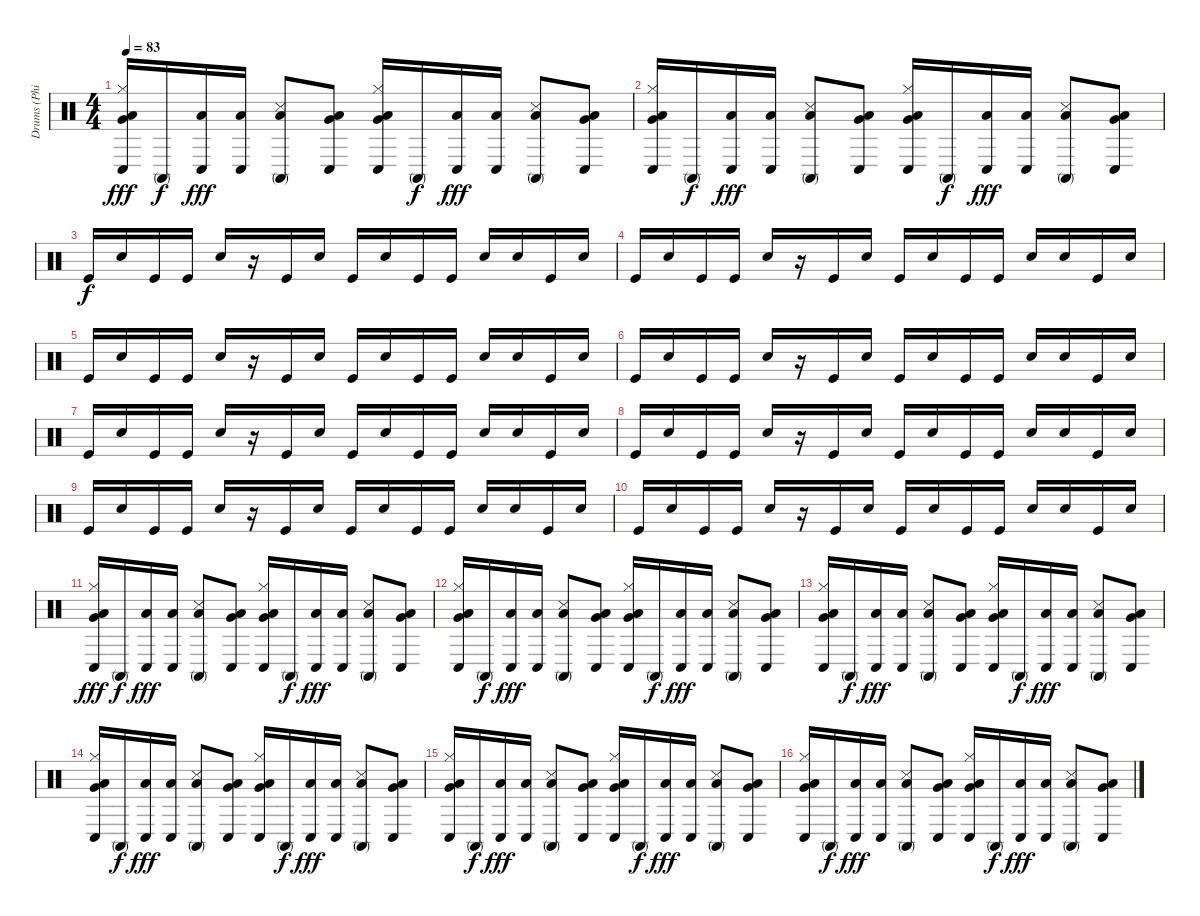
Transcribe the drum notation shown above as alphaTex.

\track ("Drums (Phil)" "Drums (Phi") {instrument percussion}
\staff {score}
\articulation defaults
\ts (4 4)
\tempo 83
\clef neutral
\ks c
("Hi-Hat (closed)" "Conga low (hit)" "Low Floor Tom (hit)" "Very Low Tom (hit)").16{dy fff} "Conga high (mute)".16{dy f} ("Conga low (hit)" "Low Tom (hit)").16{dy fff} ("Conga low (hit)" "Low Tom (hit)").16 ("Conga high (mute)" "Snare (side stick) 3" "Low Tom (hit)").8 ("Conga low (hit)" "Low Floor Tom (hit)" "Very Low Tom (hit)").8 ("Hi-Hat (closed)" "Conga low (hit)" "Low Floor Tom (hit)" "Very Low Tom (hit)").16 "Conga high (mute)".16{dy f} ("Conga low (hit)" "Low Tom (hit)").16{dy fff} ("Conga low (hit)" "Low Tom (hit)").16 ("Conga high (mute)" "Snare (side stick) 3" "Low Tom (hit)").8 ("Conga low (hit)" "Low Floor Tom (hit)" "Very Low Tom (hit)").8 |
("Hi-Hat (closed)" "Conga low (hit)" "Low Floor Tom (hit)" "Very Low Tom (hit)").16 "Conga high (mute)".16{dy f} ("Conga low (hit)" "Low Tom (hit)").16{dy fff} ("Conga low (hit)" "Low Tom (hit)").16 ("Conga high (mute)" "Snare (side stick) 3" "Low Tom (hit)").8 ("Conga low (hit)" "Low Floor Tom (hit)" "Very Low Tom (hit)").8 ("Hi-Hat (closed)" "Conga low (hit)" "Low Floor Tom (hit)" "Very Low Tom (hit)").16 "Conga high (mute)".16{dy f} ("Conga low (hit)" "Low Tom (hit)").16{dy fff} ("Conga low (hit)" "Low Tom (hit)").16 ("Conga high (mute)" "Snare (side stick) 3" "Low Tom (hit)").8 ("Conga low (hit)" "Low Floor Tom (hit)" "Very Low Tom (hit)").8 |
"Kick (hit)".16{dy f} "Snare (hit) 2".16 "Kick (hit)".16 "Kick (hit)".16 "Snare (hit) 2".16 r.16 "Kick (hit)".16 "Snare (hit) 2".16 "Kick (hit)".16 "Snare (hit) 2".16 "Kick (hit)".16 "Kick (hit)".16 "Snare (hit) 2".16 "Snare (hit) 2".16 "Kick (hit)".16 "Snare (hit) 2".16 |
"Kick (hit)".16 "Snare (hit) 2".16 "Kick (hit)".16 "Kick (hit)".16 "Snare (hit) 2".16 r.16 "Kick (hit)".16 "Snare (hit) 2".16 "Kick (hit)".16 "Snare (hit) 2".16 "Kick (hit)".16 "Kick (hit)".16 "Snare (hit) 2".16 "Snare (hit) 2".16 "Kick (hit)".16 "Snare (hit) 2".16 |
"Kick (hit)".16 "Snare (hit) 2".16 "Kick (hit)".16 "Kick (hit)".16 "Snare (hit) 2".16 r.16 "Kick (hit)".16 "Snare (hit) 2".16 "Kick (hit)".16 "Snare (hit) 2".16 "Kick (hit)".16 "Kick (hit)".16 "Snare (hit) 2".16 "Snare (hit) 2".16 "Kick (hit)".16 "Snare (hit) 2".16 |
"Kick (hit)".16 "Snare (hit) 2".16 "Kick (hit)".16 "Kick (hit)".16 "Snare (hit) 2".16 r.16 "Kick (hit)".16 "Snare (hit) 2".16 "Kick (hit)".16 "Snare (hit) 2".16 "Kick (hit)".16 "Kick (hit)".16 "Snare (hit) 2".16 "Snare (hit) 2".16 "Kick (hit)".16 "Snare (hit) 2".16 |
"Kick (hit)".16 "Snare (hit) 2".16 "Kick (hit)".16 "Kick (hit)".16 "Snare (hit) 2".16 r.16 "Kick (hit)".16 "Snare (hit) 2".16 "Kick (hit)".16 "Snare (hit) 2".16 "Kick (hit)".16 "Kick (hit)".16 "Snare (hit) 2".16 "Snare (hit) 2".16 "Kick (hit)".16 "Snare (hit) 2".16 |
"Kick (hit)".16 "Snare (hit) 2".16 "Kick (hit)".16 "Kick (hit)".16 "Snare (hit) 2".16 r.16 "Kick (hit)".16 "Snare (hit) 2".16 "Kick (hit)".16 "Snare (hit) 2".16 "Kick (hit)".16 "Kick (hit)".16 "Snare (hit) 2".16 "Snare (hit) 2".16 "Kick (hit)".16 "Snare (hit) 2".16 |
"Kick (hit)".16 "Snare (hit) 2".16 "Kick (hit)".16 "Kick (hit)".16 "Snare (hit) 2".16 r.16 "Kick (hit)".16 "Snare (hit) 2".16 "Kick (hit)".16 "Snare (hit) 2".16 "Kick (hit)".16 "Kick (hit)".16 "Snare (hit) 2".16 "Snare (hit) 2".16 "Kick (hit)".16 "Snare (hit) 2".16 |
"Kick (hit)".16 "Snare (hit) 2".16 "Kick (hit)".16 "Kick (hit)".16 "Snare (hit) 2".16 r.16 "Kick (hit)".16 "Snare (hit) 2".16 "Kick (hit)".16 "Snare (hit) 2".16 "Kick (hit)".16 "Kick (hit)".16 "Snare (hit) 2".16 "Snare (hit) 2".16 "Kick (hit)".16 "Snare (hit) 2".16 |
("Hi-Hat (closed)" "Conga low (hit)" "Low Floor Tom (hit)" "Very Low Tom (hit)").16{dy fff} "Conga high (mute)".16{dy f} ("Conga low (hit)" "Low Tom (hit)").16{dy fff} ("Conga low (hit)" "Low Tom (hit)").16 ("Conga high (mute)" "Snare (side stick) 3" "Low Tom (hit)").8 ("Conga low (hit)" "Low Floor Tom (hit)" "Very Low Tom (hit)").8 ("Hi-Hat (closed)" "Conga low (hit)" "Low Floor Tom (hit)" "Very Low Tom (hit)").16 "Conga high (mute)".16{dy f} ("Conga low (hit)" "Low Tom (hit)").16{dy fff} ("Conga low (hit)" "Low Tom (hit)").16 ("Conga high (mute)" "Snare (side stick) 3" "Low Tom (hit)").8 ("Conga low (hit)" "Low Floor Tom (hit)" "Very Low Tom (hit)").8 |
("Hi-Hat (closed)" "Conga low (hit)" "Low Floor Tom (hit)" "Very Low Tom (hit)").16 "Conga high (mute)".16{dy f} ("Conga low (hit)" "Low Tom (hit)").16{dy fff} ("Conga low (hit)" "Low Tom (hit)").16 ("Conga high (mute)" "Snare (side stick) 3" "Low Tom (hit)").8 ("Conga low (hit)" "Low Floor Tom (hit)" "Very Low Tom (hit)").8 ("Hi-Hat (closed)" "Conga low (hit)" "Low Floor Tom (hit)" "Very Low Tom (hit)").16 "Conga high (mute)".16{dy f} ("Conga low (hit)" "Low Tom (hit)").16{dy fff} ("Conga low (hit)" "Low Tom (hit)").16 ("Conga high (mute)" "Snare (side stick) 3" "Low Tom (hit)").8 ("Conga low (hit)" "Low Floor Tom (hit)" "Very Low Tom (hit)").8 |
("Hi-Hat (closed)" "Conga low (hit)" "Low Floor Tom (hit)" "Very Low Tom (hit)").16 "Conga high (mute)".16{dy f} ("Conga low (hit)" "Low Tom (hit)").16{dy fff} ("Conga low (hit)" "Low Tom (hit)").16 ("Conga high (mute)" "Snare (side stick) 3" "Low Tom (hit)").8 ("Conga low (hit)" "Low Floor Tom (hit)" "Very Low Tom (hit)").8 ("Hi-Hat (closed)" "Conga low (hit)" "Low Floor Tom (hit)" "Very Low Tom (hit)").16 "Conga high (mute)".16{dy f} ("Conga low (hit)" "Low Tom (hit)").16{dy fff} ("Conga low (hit)" "Low Tom (hit)").16 ("Conga high (mute)" "Snare (side stick) 3" "Low Tom (hit)").8 ("Conga low (hit)" "Low Floor Tom (hit)" "Very Low Tom (hit)").8 |
("Hi-Hat (closed)" "Conga low (hit)" "Low Floor Tom (hit)" "Very Low Tom (hit)").16 "Conga high (mute)".16{dy f} ("Conga low (hit)" "Low Tom (hit)").16{dy fff} ("Conga low (hit)" "Low Tom (hit)").16 ("Conga high (mute)" "Snare (side stick) 3" "Low Tom (hit)").8 ("Conga low (hit)" "Low Floor Tom (hit)" "Very Low Tom (hit)").8 ("Hi-Hat (closed)" "Conga low (hit)" "Low Floor Tom (hit)" "Very Low Tom (hit)").16 "Conga high (mute)".16{dy f} ("Conga low (hit)" "Low Tom (hit)").16{dy fff} ("Conga low (hit)" "Low Tom (hit)").16 ("Conga high (mute)" "Snare (side stick) 3" "Low Tom (hit)").8 ("Conga low (hit)" "Low Floor Tom (hit)" "Very Low Tom (hit)").8 |
("Hi-Hat (closed)" "Conga low (hit)" "Low Floor Tom (hit)" "Very Low Tom (hit)").16 "Conga high (mute)".16{dy f} ("Conga low (hit)" "Low Tom (hit)").16{dy fff} ("Conga low (hit)" "Low Tom (hit)").16 ("Conga high (mute)" "Snare (side stick) 3" "Low Tom (hit)").8 ("Conga low (hit)" "Low Floor Tom (hit)" "Very Low Tom (hit)").8 ("Hi-Hat (closed)" "Conga low (hit)" "Low Floor Tom (hit)" "Very Low Tom (hit)").16 "Conga high (mute)".16{dy f} ("Conga low (hit)" "Low Tom (hit)").16{dy fff} ("Conga low (hit)" "Low Tom (hit)").16 ("Conga high (mute)" "Snare (side stick) 3" "Low Tom (hit)").8 ("Conga low (hit)" "Low Floor Tom (hit)" "Very Low Tom (hit)").8 |
("Hi-Hat (closed)" "Conga low (hit)" "Low Floor Tom (hit)" "Very Low Tom (hit)").16 "Conga high (mute)".16{dy f} ("Conga low (hit)" "Low Tom (hit)").16{dy fff} ("Conga low (hit)" "Low Tom (hit)").16 ("Conga high (mute)" "Snare (side stick) 3" "Low Tom (hit)").8 ("Conga low (hit)" "Low Floor Tom (hit)" "Very Low Tom (hit)").8 ("Hi-Hat (closed)" "Conga low (hit)" "Low Floor Tom (hit)" "Very Low Tom (hit)").16 "Conga high (mute)".16{dy f} ("Conga low (hit)" "Low Tom (hit)").16{dy fff} ("Conga low (hit)" "Low Tom (hit)").16 ("Conga high (mute)" "Snare (side stick) 3" "Low Tom (hit)").8 ("Conga low (hit)" "Low Floor Tom (hit)" "Very Low Tom (hit)").8
